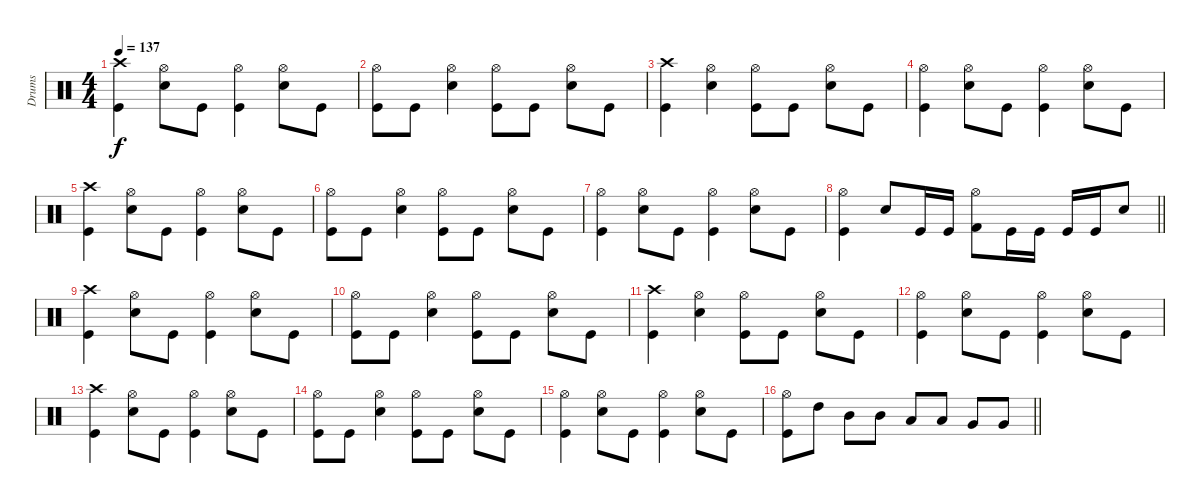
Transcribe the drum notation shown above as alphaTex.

\track ("Drums" "Drums") {instrument percussion}
\staff {score}
\articulation defaults
\ts (4 4)
\tempo 137
\clef neutral
\ks c
("Crash high (hit)" "Kick (hit)").4{dy f} ("Hi-Hat (open)" "Electric Snare (hit)").8 "Kick (hit)".8 ("Hi-Hat (open)" "Kick (hit)").4 ("Hi-Hat (open)" "Electric Snare (hit)").8 "Kick (hit)".8 |
("Hi-Hat (open)" "Kick (hit)").8 "Kick (hit)".8 ("Hi-Hat (open)" "Electric Snare (hit)").4 ("Hi-Hat (open)" "Kick (hit)").8 "Kick (hit)".8 ("Hi-Hat (open)" "Electric Snare (hit)").8 "Kick (hit)".8 |
("Crash high (hit)" "Kick (hit)").4 ("Hi-Hat (open)" "Electric Snare (hit)").4 ("Hi-Hat (open)" "Kick (hit)").8 "Kick (hit)".8 ("Hi-Hat (open)" "Electric Snare (hit)").8 "Kick (hit)".8 |
("Hi-Hat (open)" "Kick (hit)").4 ("Hi-Hat (open)" "Electric Snare (hit)").8 "Kick (hit)".8 ("Hi-Hat (open)" "Kick (hit)").4 ("Hi-Hat (open)" "Electric Snare (hit)").8 "Kick (hit)".8 |
("Crash high (hit)" "Kick (hit)").4 ("Hi-Hat (open)" "Electric Snare (hit)").8 "Kick (hit)".8 ("Hi-Hat (open)" "Kick (hit)").4 ("Hi-Hat (open)" "Electric Snare (hit)").8 "Kick (hit)".8 |
("Hi-Hat (open)" "Kick (hit)").8 "Kick (hit)".8 ("Hi-Hat (open)" "Electric Snare (hit)").4 ("Hi-Hat (open)" "Kick (hit)").8 "Kick (hit)".8 ("Hi-Hat (open)" "Electric Snare (hit)").8 "Kick (hit)".8 |
("Hi-Hat (open)" "Kick (hit)").4 ("Hi-Hat (open)" "Electric Snare (hit)").8 "Kick (hit)".8 ("Hi-Hat (open)" "Kick (hit)").4 ("Hi-Hat (open)" "Electric Snare (hit)").8 "Kick (hit)".8 |
\barLineRight lightlight
("Hi-Hat (open)" "Kick (hit)").4 "Electric Snare (hit)".8 "Kick (hit)".16 "Kick (hit)".16 ("Hi-Hat (open)" "Kick (hit) 2").8 "Kick (hit)".16 "Kick (hit)".16 "Kick (hit)".16 "Kick (hit)".16 "Electric Snare (hit)".8 |
\section ("" "")
("Crash high (hit)" "Kick (hit)").4 ("Hi-Hat (open)" "Electric Snare (hit)").8 "Kick (hit)".8 ("Hi-Hat (open)" "Kick (hit)").4 ("Hi-Hat (open)" "Electric Snare (hit)").8 "Kick (hit)".8 |
("Hi-Hat (open)" "Kick (hit)").8 "Kick (hit)".8 ("Hi-Hat (open)" "Electric Snare (hit)").4 ("Hi-Hat (open)" "Kick (hit)").8 "Kick (hit)".8 ("Hi-Hat (open)" "Electric Snare (hit)").8 "Kick (hit)".8 |
("Crash high (hit)" "Kick (hit)").4 ("Hi-Hat (open)" "Electric Snare (hit)").4 ("Hi-Hat (open)" "Kick (hit)").8 "Kick (hit)".8 ("Hi-Hat (open)" "Electric Snare (hit)").8 "Kick (hit)".8 |
("Hi-Hat (open)" "Kick (hit)").4 ("Hi-Hat (open)" "Electric Snare (hit)").8 "Kick (hit)".8 ("Hi-Hat (open)" "Kick (hit)").4 ("Hi-Hat (open)" "Electric Snare (hit)").8 "Kick (hit)".8 |
("Crash high (hit)" "Kick (hit)").4 ("Hi-Hat (open)" "Electric Snare (hit)").8 "Kick (hit)".8 ("Hi-Hat (open)" "Kick (hit)").4 ("Hi-Hat (open)" "Electric Snare (hit)").8 "Kick (hit)".8 |
("Hi-Hat (open)" "Kick (hit)").8 "Kick (hit)".8 ("Hi-Hat (open)" "Electric Snare (hit)").4 ("Hi-Hat (open)" "Kick (hit)").8 "Kick (hit)".8 ("Hi-Hat (open)" "Electric Snare (hit)").8 "Kick (hit)".8 |
("Hi-Hat (open)" "Kick (hit)").4 ("Hi-Hat (open)" "Electric Snare (hit)").8 "Kick (hit)".8 ("Hi-Hat (open)" "Kick (hit)").4 ("Hi-Hat (open)" "Electric Snare (hit)").8 "Kick (hit)".8 |
\barLineRight lightlight
("Hi-Hat (open)" "Kick (hit)").8 "High Tom (hit)".8 "Mid Tom (hit)".8 "Mid Tom (hit)".8 "Low Tom (hit)".8 "Low Tom (hit)".8 "Very Low Tom (hit)".8 "Very Low Tom (hit)".8
